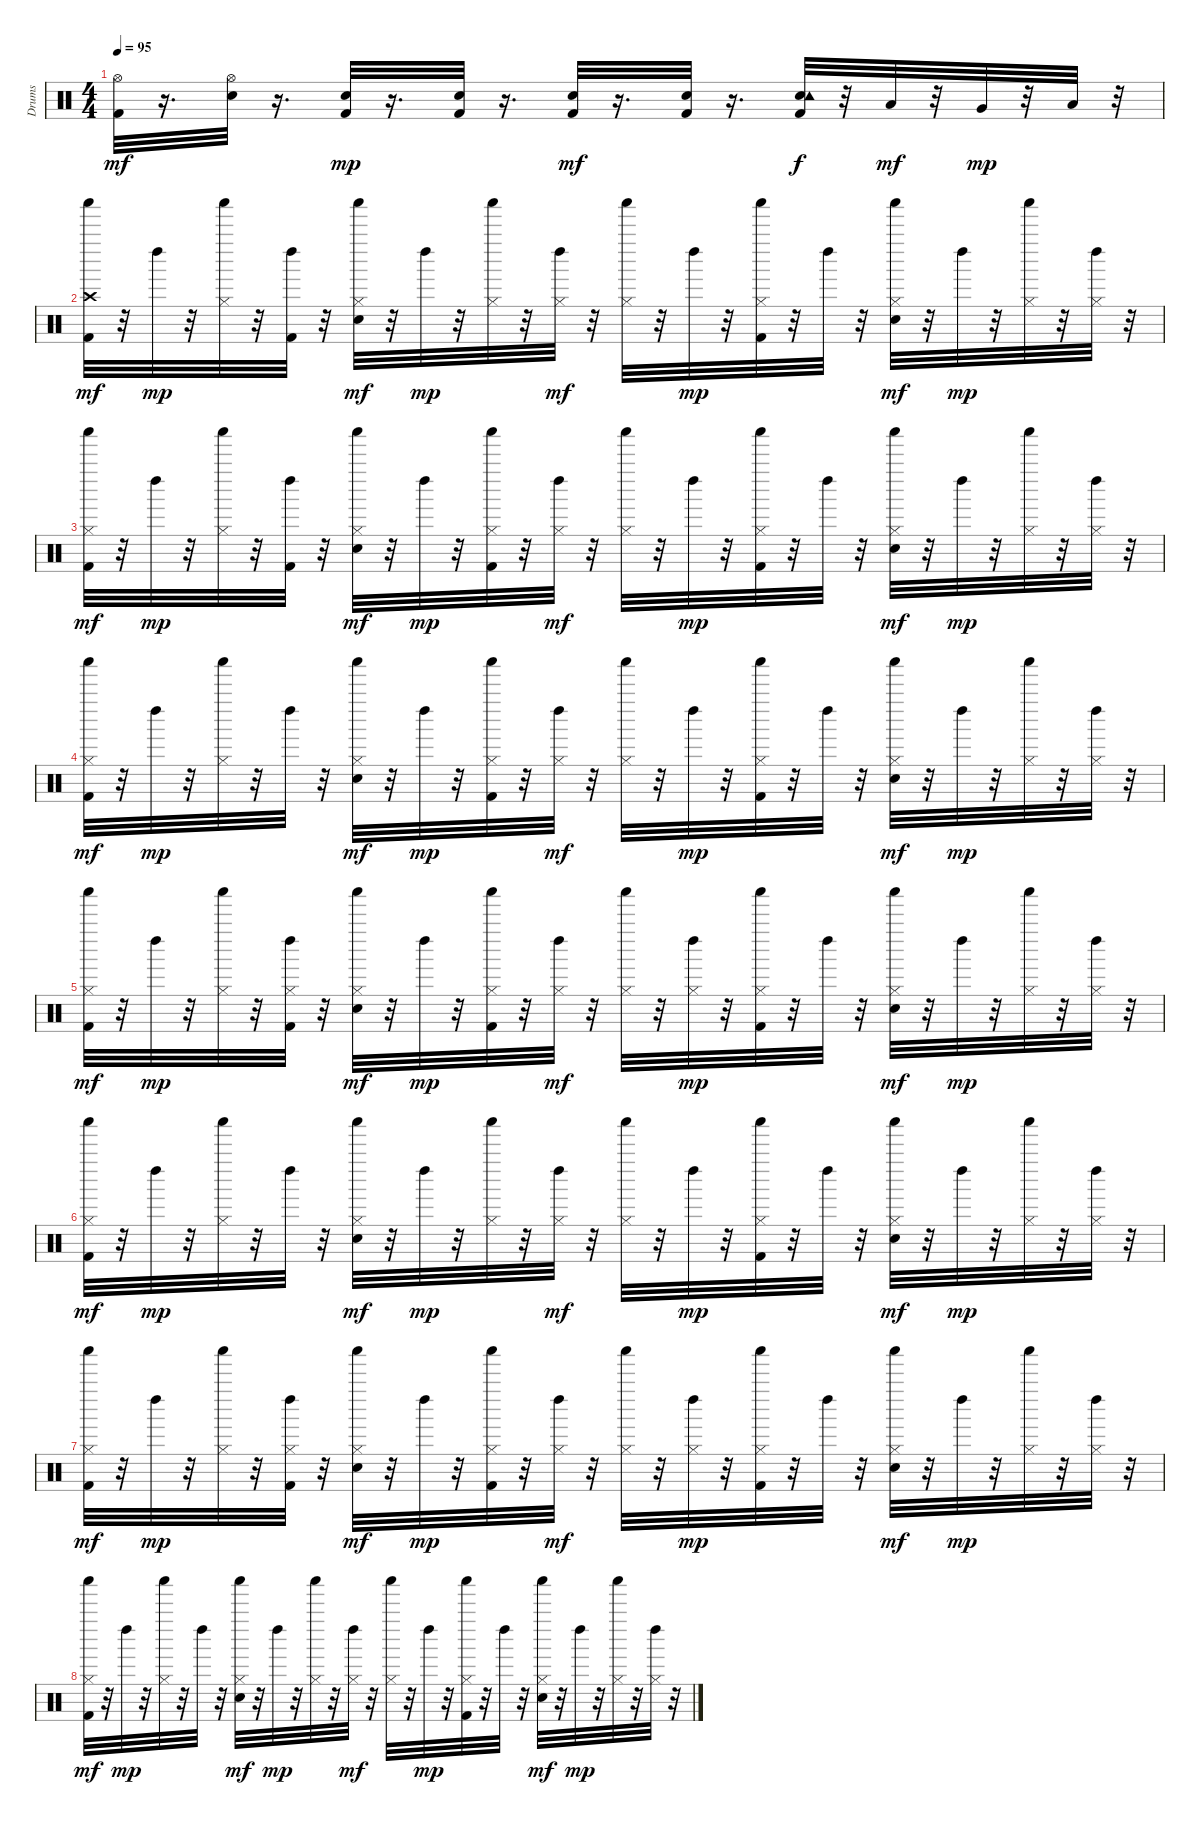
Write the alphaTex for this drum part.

\track ("Drums" "Drums") {instrument percussion}
\staff {score}
\articulation defaults
\ts (4 4)
\tempo 95
\clef neutral
\ks c
("Kick (hit) 2" "Hi-Hat (open)").32{dy mf} r.16{d} ("Electric Snare (hit)" "Hi-Hat (open)").32 r.16{d} ("Kick (hit) 2" "Electric Snare (hit)").32{dy mp} r.16{d} ("Kick (hit) 2" "Electric Snare (hit)").32 r.16{d} ("Kick (hit) 2" "Electric Snare (hit)").32{dy mf} r.16{d} ("Kick (hit) 2" "Electric Snare (hit)").32 r.16{d} ("Kick (hit) 2" "Electric Snare (hit)" "Tambourine (hit)").32{dy f} r.32 "Low Tom (hit)".32{dy mf} r.32 "Very Low Tom (hit)".32{dy mp} r.32 "Low Floor Tom (hit)".32 r.32 |
("Kick (hit) 2" "Crash high (hit)" "Shaker (hit)").32{dy mf} r.32 "Left Maraca (hit)".32{dy mp} r.32 ("Hi-Hat (closed)" "Shaker (hit)").32 r.32 ("Kick (hit) 2" "Left Maraca (hit)").32 r.32 ("Electric Snare (hit)" "Hi-Hat (closed)" "Shaker (hit)").32{dy mf} r.32 "Left Maraca (hit)".32{dy mp} r.32 ("Hi-Hat (closed)" "Shaker (hit)").32 r.32 ("Hi-Hat (closed)" "Left Maraca (hit)").32{dy mf} r.32 ("Hi-Hat (closed)" "Shaker (hit)").32 r.32 "Left Maraca (hit)".32{dy mp} r.32 ("Kick (hit) 2" "Hi-Hat (closed)" "Shaker (hit)").32 r.32 "Left Maraca (hit)".32 r.32 ("Electric Snare (hit)" "Hi-Hat (closed)" "Shaker (hit)").32{dy mf} r.32 "Left Maraca (hit)".32{dy mp} r.32 ("Hi-Hat (closed)" "Shaker (hit)").32 r.32 ("Hi-Hat (closed)" "Left Maraca (hit)").32 r.32 |
("Kick (hit) 2" "Hi-Hat (closed)" "Shaker (hit)").32{dy mf} r.32 "Left Maraca (hit)".32{dy mp} r.32 ("Hi-Hat (closed)" "Shaker (hit)").32 r.32 ("Kick (hit) 2" "Left Maraca (hit)").32 r.32 ("Electric Snare (hit)" "Hi-Hat (closed)" "Shaker (hit)").32{dy mf} r.32 "Left Maraca (hit)".32{dy mp} r.32 ("Kick (hit) 2" "Hi-Hat (closed)" "Shaker (hit)").32 r.32 ("Hi-Hat (closed)" "Left Maraca (hit)").32{dy mf} r.32 ("Hi-Hat (closed)" "Shaker (hit)").32 r.32 "Left Maraca (hit)".32{dy mp} r.32 ("Kick (hit) 2" "Hi-Hat (closed)" "Shaker (hit)").32 r.32 "Left Maraca (hit)".32 r.32 ("Electric Snare (hit)" "Hi-Hat (closed)" "Shaker (hit)").32{dy mf} r.32 "Left Maraca (hit)".32{dy mp} r.32 ("Hi-Hat (closed)" "Shaker (hit)").32 r.32 ("Hi-Hat (closed)" "Left Maraca (hit)").32 r.32 |
("Kick (hit) 2" "Hi-Hat (closed)" "Shaker (hit)").32{dy mf} r.32 "Left Maraca (hit)".32{dy mp} r.32 ("Hi-Hat (closed)" "Shaker (hit)").32 r.32 "Left Maraca (hit)".32 r.32 ("Electric Snare (hit)" "Hi-Hat (closed)" "Shaker (hit)").32{dy mf} r.32 "Left Maraca (hit)".32{dy mp} r.32 ("Kick (hit) 2" "Hi-Hat (closed)" "Shaker (hit)").32 r.32 ("Hi-Hat (closed)" "Left Maraca (hit)").32{dy mf} r.32 ("Hi-Hat (closed)" "Shaker (hit)").32 r.32 "Left Maraca (hit)".32{dy mp} r.32 ("Kick (hit) 2" "Hi-Hat (closed)" "Shaker (hit)").32 r.32 "Left Maraca (hit)".32 r.32 ("Electric Snare (hit)" "Hi-Hat (closed)" "Shaker (hit)").32{dy mf} r.32 "Left Maraca (hit)".32{dy mp} r.32 ("Hi-Hat (closed)" "Shaker (hit)").32 r.32 ("Hi-Hat (closed)" "Left Maraca (hit)").32 r.32 |
("Kick (hit) 2" "Hi-Hat (closed)" "Shaker (hit)").32{dy mf} r.32 "Left Maraca (hit)".32{dy mp} r.32 ("Hi-Hat (closed)" "Shaker (hit)").32 r.32 ("Kick (hit) 2" "Hi-Hat (closed)" "Left Maraca (hit)").32 r.32 ("Electric Snare (hit)" "Hi-Hat (closed)" "Shaker (hit)").32{dy mf} r.32 "Left Maraca (hit)".32{dy mp} r.32 ("Kick (hit) 2" "Hi-Hat (closed)" "Shaker (hit)").32 r.32 ("Hi-Hat (closed)" "Left Maraca (hit)").32{dy mf} r.32 ("Hi-Hat (closed)" "Shaker (hit)").32 r.32 ("Hi-Hat (closed)" "Left Maraca (hit)").32{dy mp} r.32 ("Kick (hit) 2" "Hi-Hat (closed)" "Shaker (hit)").32 r.32 "Left Maraca (hit)".32 r.32 ("Electric Snare (hit)" "Hi-Hat (closed)" "Shaker (hit)").32{dy mf} r.32 "Left Maraca (hit)".32{dy mp} r.32 ("Hi-Hat (closed)" "Shaker (hit)").32 r.32 ("Hi-Hat (closed)" "Left Maraca (hit)").32 r.32 |
("Kick (hit) 2" "Hi-Hat (closed)" "Shaker (hit)").32{dy mf} r.32 "Left Maraca (hit)".32{dy mp} r.32 ("Hi-Hat (closed)" "Shaker (hit)").32 r.32 "Left Maraca (hit)".32 r.32 ("Electric Snare (hit)" "Hi-Hat (closed)" "Shaker (hit)").32{dy mf} r.32 "Left Maraca (hit)".32{dy mp} r.32 ("Hi-Hat (closed)" "Shaker (hit)").32 r.32 ("Hi-Hat (closed)" "Left Maraca (hit)").32{dy mf} r.32 ("Hi-Hat (closed)" "Shaker (hit)").32 r.32 "Left Maraca (hit)".32{dy mp} r.32 ("Kick (hit) 2" "Hi-Hat (closed)" "Shaker (hit)").32 r.32 "Left Maraca (hit)".32 r.32 ("Electric Snare (hit)" "Hi-Hat (closed)" "Shaker (hit)").32{dy mf} r.32 "Left Maraca (hit)".32{dy mp} r.32 ("Hi-Hat (closed)" "Shaker (hit)").32 r.32 ("Hi-Hat (closed)" "Left Maraca (hit)").32 r.32 |
("Kick (hit) 2" "Hi-Hat (closed)" "Shaker (hit)").32{dy mf} r.32 "Left Maraca (hit)".32{dy mp} r.32 ("Hi-Hat (closed)" "Shaker (hit)").32 r.32 ("Kick (hit) 2" "Hi-Hat (closed)" "Left Maraca (hit)").32 r.32 ("Electric Snare (hit)" "Hi-Hat (closed)" "Shaker (hit)").32{dy mf} r.32 "Left Maraca (hit)".32{dy mp} r.32 ("Kick (hit) 2" "Hi-Hat (closed)" "Shaker (hit)").32 r.32 ("Hi-Hat (closed)" "Left Maraca (hit)").32{dy mf} r.32 ("Hi-Hat (closed)" "Shaker (hit)").32 r.32 ("Hi-Hat (closed)" "Left Maraca (hit)").32{dy mp} r.32 ("Kick (hit) 2" "Hi-Hat (closed)" "Shaker (hit)").32 r.32 "Left Maraca (hit)".32 r.32 ("Electric Snare (hit)" "Hi-Hat (closed)" "Shaker (hit)").32{dy mf} r.32 "Left Maraca (hit)".32{dy mp} r.32 ("Hi-Hat (closed)" "Shaker (hit)").32 r.32 ("Hi-Hat (closed)" "Left Maraca (hit)").32 r.32 |
("Kick (hit) 2" "Hi-Hat (closed)" "Shaker (hit)").32{dy mf} r.32 "Left Maraca (hit)".32{dy mp} r.32 ("Hi-Hat (closed)" "Shaker (hit)").32 r.32 "Left Maraca (hit)".32 r.32 ("Electric Snare (hit)" "Hi-Hat (closed)" "Shaker (hit)").32{dy mf} r.32 "Left Maraca (hit)".32{dy mp} r.32 ("Hi-Hat (closed)" "Shaker (hit)").32 r.32 ("Hi-Hat (closed)" "Left Maraca (hit)").32{dy mf} r.32 ("Hi-Hat (closed)" "Shaker (hit)").32 r.32 "Left Maraca (hit)".32{dy mp} r.32 ("Kick (hit) 2" "Hi-Hat (closed)" "Shaker (hit)").32 r.32 "Left Maraca (hit)".32 r.32 ("Electric Snare (hit)" "Hi-Hat (closed)" "Shaker (hit)").32{dy mf} r.32 "Left Maraca (hit)".32{dy mp} r.32 ("Hi-Hat (closed)" "Shaker (hit)").32 r.32 ("Hi-Hat (closed)" "Left Maraca (hit)").32 r.32
